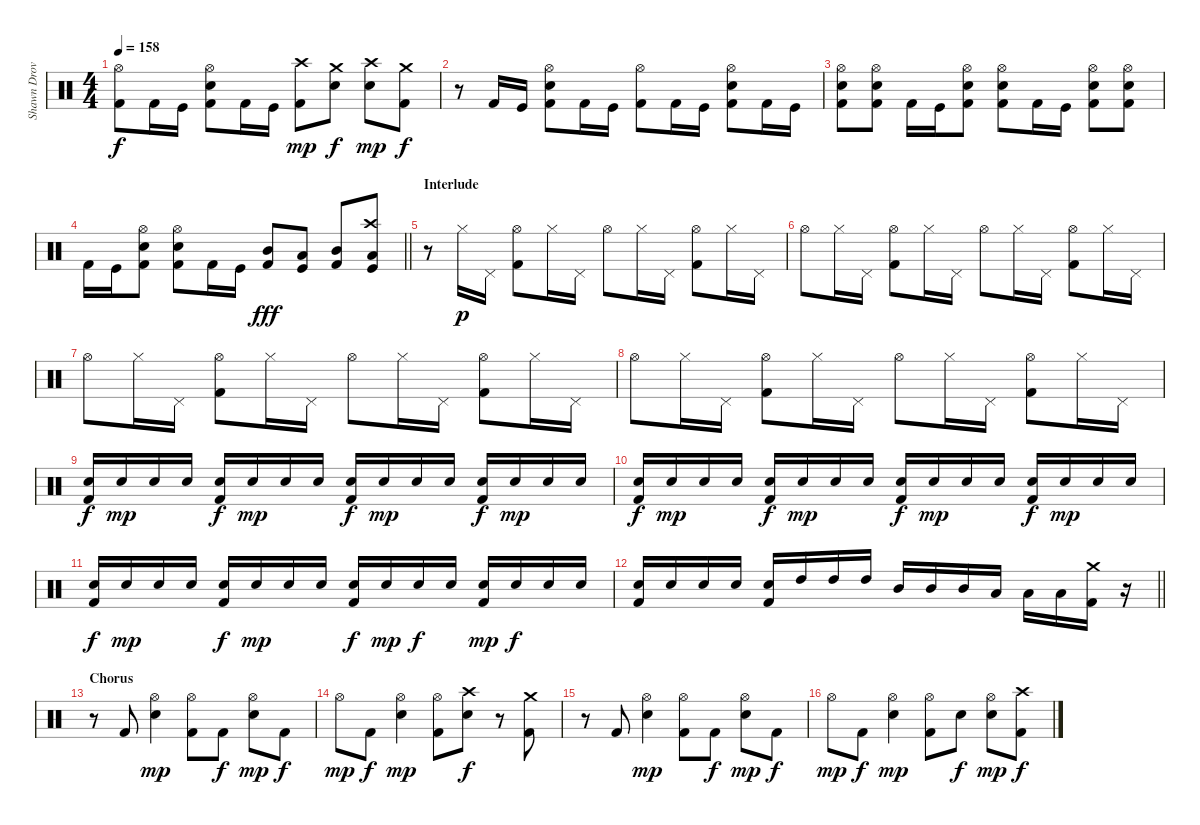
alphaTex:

\track ("Shawn Drover" "Shawn Drov") {instrument percussion}
\staff
\articulation defaults
\ts (4 4)
\tempo 158
\clef neutral
\ks c
("Hi-Hat (open)" "Kick (hit) 2").8{dy f} "Kick (hit) 2".16 "Kick (hit)".16 ("Hi-Hat (open)" "Snare (hit) 2" "Kick (hit) 2").8 "Kick (hit) 2".16 "Kick (hit)".16 ("Crash high (hit)" "Kick (hit) 2").8{dy mp} ("Crash medium (hit)" "Snare (hit) 2").8{dy f} ("Crash high (hit)" "Snare (hit) 2").8{dy mp} ("Crash medium (hit)" "Kick (hit) 2").8{dy f} |
r.8 "Kick (hit) 2".16 "Kick (hit)".16 ("Hi-Hat (open)" "Snare (hit) 2" "Kick (hit) 2").8 "Kick (hit) 2".16 "Kick (hit)".16 ("Hi-Hat (open)" "Kick (hit) 2").8 "Kick (hit) 2".16 "Kick (hit)".16 ("Hi-Hat (open)" "Snare (hit) 2" "Kick (hit) 2").8 "Kick (hit) 2".16 "Kick (hit)".16 |
("Hi-Hat (open)" "Snare (hit) 2" "Kick (hit) 2").8 ("Hi-Hat (open)" "Snare (hit) 2" "Kick (hit) 2").8 "Kick (hit) 2".16 "Kick (hit)".16 ("Hi-Hat (open)" "Snare (hit) 2" "Kick (hit) 2").8 ("Hi-Hat (open)" "Snare (hit) 2" "Kick (hit) 2").8 "Kick (hit) 2".16 "Kick (hit)".16 ("Hi-Hat (open)" "Snare (hit) 2" "Kick (hit) 2").8 ("Hi-Hat (open)" "Snare (hit) 2" "Kick (hit) 2").8 |
\barLineRight lightlight "Kick (hit) 2".16 "Kick (hit)".16
("Hi-Hat (open)" "Snare (hit) 2" "Kick (hit) 2").8 ("Hi-Hat (open)" "Snare (hit) 2" "Kick (hit) 2").8 "Kick (hit) 2".16 "Kick (hit)".16 ("Mid Tom (hit)" "Kick (hit) 2").8{dy fff} ("Low Tom (hit)" "Kick (hit)").8 ("Mid Tom (hit)" "Kick (hit) 2").8 ("Crash high (hit)" "Low Floor Tom (hit)" "Kick (hit)").8 |
\section ("" "Interlude")
r.8 "Hi-Hat (closed)".16{dy p} "Pedal Hi-Hat (hit)".16 ("Hi-Hat (open)" "Kick (hit) 2").8 "Hi-Hat (closed)".16 "Pedal Hi-Hat (hit)".16 "Hi-Hat (open)".8 "Hi-Hat (closed)".16 "Pedal Hi-Hat (hit)".16 ("Hi-Hat (open)" "Kick (hit) 2").8 "Hi-Hat (closed)".16 "Pedal Hi-Hat (hit)".16 |
"Hi-Hat (open)".8 "Hi-Hat (closed)".16 "Pedal Hi-Hat (hit)".16 ("Hi-Hat (open)" "Kick (hit) 2").8 "Hi-Hat (closed)".16 "Pedal Hi-Hat (hit)".16 "Hi-Hat (open)".8 "Hi-Hat (closed)".16 "Pedal Hi-Hat (hit)".16 ("Hi-Hat (open)" "Kick (hit) 2").8 "Hi-Hat (closed)".16 "Pedal Hi-Hat (hit)".16 |
"Hi-Hat (open)".8 "Hi-Hat (closed)".16 "Pedal Hi-Hat (hit)".16 ("Hi-Hat (open)" "Kick (hit) 2").8 "Hi-Hat (closed)".16 "Pedal Hi-Hat (hit)".16 "Hi-Hat (open)".8 "Hi-Hat (closed)".16 "Pedal Hi-Hat (hit)".16 ("Hi-Hat (open)" "Kick (hit) 2").8 "Hi-Hat (closed)".16 "Pedal Hi-Hat (hit)".16 |
"Hi-Hat (open)".8 "Hi-Hat (closed)".16 "Pedal Hi-Hat (hit)".16 ("Hi-Hat (open)" "Kick (hit) 2").8 "Hi-Hat (closed)".16 "Pedal Hi-Hat (hit)".16 "Hi-Hat (open)".8 "Hi-Hat (closed)".16 "Pedal Hi-Hat (hit)".16 ("Hi-Hat (open)" "Kick (hit) 2").8 "Hi-Hat (closed)".16 "Pedal Hi-Hat (hit)".16 |
("Snare (hit) 2" "Kick (hit) 2").16{dy f} "Snare (hit) 2".16{dy mp} "Snare (hit) 2".16 "Snare (hit) 2".16 ("Snare (hit) 2" "Kick (hit) 2").16{dy f} "Snare (hit) 2".16{dy mp} "Snare (hit) 2".16 "Snare (hit) 2".16 ("Snare (hit) 2" "Kick (hit) 2").16{dy f} "Snare (hit) 2".16{dy mp} "Snare (hit) 2".16 "Snare (hit) 2".16 ("Snare (hit) 2" "Kick (hit) 2").16{dy f} "Snare (hit) 2".16{dy mp} "Snare (hit) 2".16 "Snare (hit) 2".16 |
("Snare (hit) 2" "Kick (hit) 2").16{dy f} "Snare (hit) 2".16{dy mp} "Snare (hit) 2".16 "Snare (hit) 2".16 ("Snare (hit) 2" "Kick (hit) 2").16{dy f} "Snare (hit) 2".16{dy mp} "Snare (hit) 2".16 "Snare (hit) 2".16 ("Snare (hit) 2" "Kick (hit) 2").16{dy f} "Snare (hit) 2".16{dy mp} "Snare (hit) 2".16 "Snare (hit) 2".16 ("Snare (hit) 2" "Kick (hit) 2").16{dy f} "Snare (hit) 2".16{dy mp} "Snare (hit) 2".16 "Snare (hit) 2".16 |
("Snare (hit) 2" "Kick (hit) 2").16{dy f} "Snare (hit) 2".16{dy mp} "Snare (hit) 2".16 "Snare (hit) 2".16 ("Snare (hit) 2" "Kick (hit) 2").16{dy f} "Snare (hit) 2".16{dy mp} "Snare (hit) 2".16 "Snare (hit) 2".16 ("Snare (hit) 2" "Kick (hit) 2").16{dy f} "Snare (hit) 2".16{dy mp} "Snare (hit) 2".16{dy f} "Snare (hit) 2".16 ("Snare (hit) 2" "Kick (hit) 2").16{dy mp} "Snare (hit) 2".16{dy f} "Snare (hit) 2".16 "Snare (hit) 2".16 |
\barLineRight lightlight
("Snare (hit) 2" "Kick (hit) 2").16 "Snare (hit) 2".16 "Snare (hit) 2".16 "Snare (hit) 2".16 ("Snare (hit) 2" "Kick (hit) 2").16 "High Tom (hit)".16 "High Tom (hit)".16 "High Tom (hit)".16 "Mid Tom (hit)".16 "Mid Tom (hit)".16 "Mid Tom (hit)".16 "Low Tom (hit)".16 "Low Tom (hit)".16 "Low Tom (hit)".16 ("Crash medium (hit)" "Kick (hit) 2").16 r.16 |
\section ("" "Chorus")
r.8 "Kick (hit) 2".8 ("Hi-Hat (open)" "Snare (hit) 2").4{dy mp} ("Hi-Hat (open)" "Kick (hit) 2").8 "Kick (hit) 2".8{dy f} ("Hi-Hat (open)" "Snare (hit) 2").8{dy mp} "Kick (hit) 2".8{dy f} |
"Hi-Hat (open)".8{dy mp} "Kick (hit) 2".8{dy f} ("Hi-Hat (open)" "Snare (hit) 2").4{dy mp} ("Hi-Hat (open)" "Kick (hit) 2").8 ("Crash high (hit)" "Snare (hit) 2").8{dy f} r.8 ("Crash medium (hit)" "Kick (hit) 2").8 |
r.8 "Kick (hit) 2".8 ("Hi-Hat (open)" "Snare (hit) 2").4{dy mp} ("Hi-Hat (open)" "Kick (hit) 2").8 "Kick (hit) 2".8{dy f} ("Hi-Hat (open)" "Snare (hit) 2").8{dy mp} "Kick (hit) 2".8{dy f} |
"Hi-Hat (open)".8{dy mp} "Kick (hit) 2".8{dy f} ("Hi-Hat (open)" "Snare (hit) 2").4{dy mp} ("Hi-Hat (open)" "Kick (hit) 2").8 "Snare (hit) 2".8{dy f} ("Hi-Hat (open)" "Snare (hit) 2").8{dy mp} ("Crash high (hit)" "Kick (hit) 2").8{dy f}
